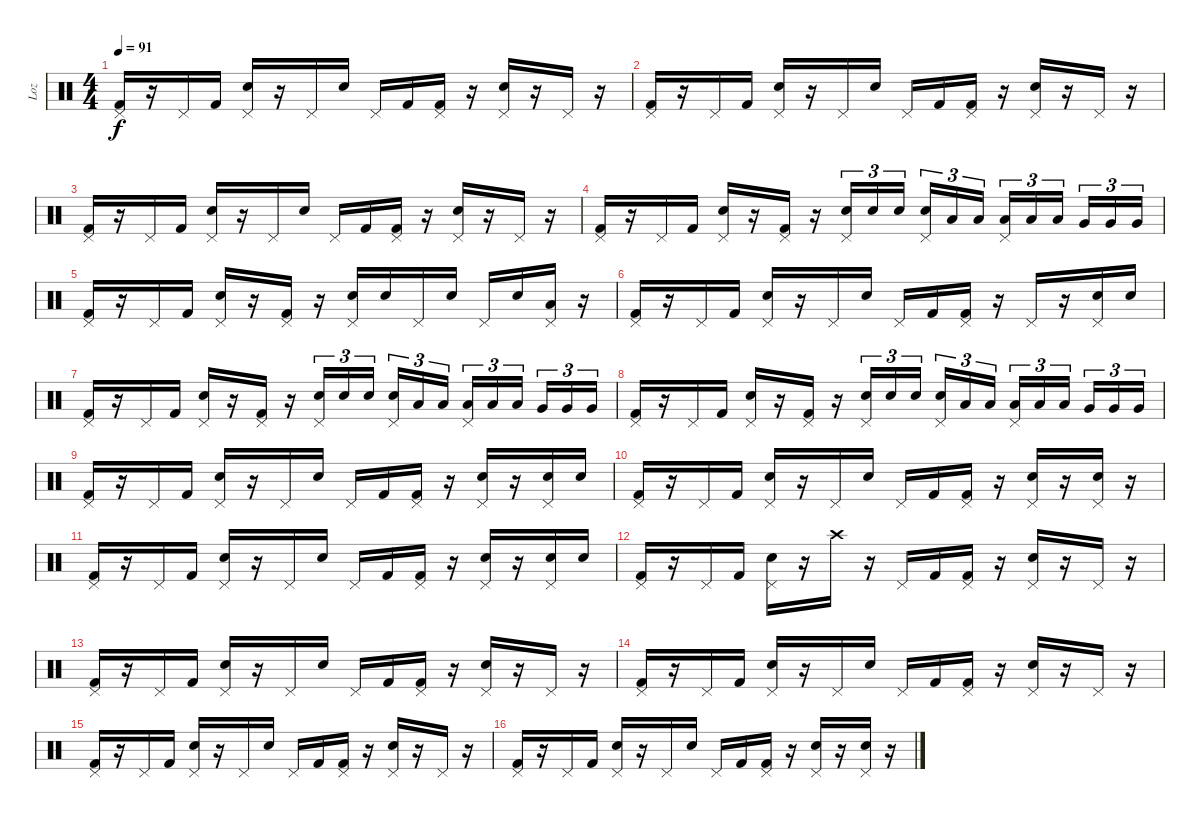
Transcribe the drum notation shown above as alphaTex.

\track ("Loz" "Loz") {instrument percussion}
\staff {score}
\articulation defaults
\ts (4 4)
\tempo 91
\clef neutral
\ks c
("Pedal Hi-Hat (hit)" "Kick (hit) 2").16{dy f} r.16 "Pedal Hi-Hat (hit)".16 "Kick (hit) 2".16 ("Pedal Hi-Hat (hit)" "Electric Snare (hit)").16 r.16 "Pedal Hi-Hat (hit)".16 "Electric Snare (hit)".16 "Pedal Hi-Hat (hit)".16 "Kick (hit) 2".16 ("Pedal Hi-Hat (hit)" "Kick (hit) 2").16 r.16 ("Pedal Hi-Hat (hit)" "Electric Snare (hit)").16 r.16 "Pedal Hi-Hat (hit)".16 r.16 |
("Pedal Hi-Hat (hit)" "Kick (hit) 2").16 r.16 "Pedal Hi-Hat (hit)".16 "Kick (hit) 2".16 ("Pedal Hi-Hat (hit)" "Electric Snare (hit)").16 r.16 "Pedal Hi-Hat (hit)".16 "Electric Snare (hit)".16 "Pedal Hi-Hat (hit)".16 "Kick (hit) 2".16 ("Pedal Hi-Hat (hit)" "Kick (hit) 2").16 r.16 ("Pedal Hi-Hat (hit)" "Electric Snare (hit)").16 r.16 "Pedal Hi-Hat (hit)".16 r.16 |
("Pedal Hi-Hat (hit)" "Kick (hit) 2").16 r.16 "Pedal Hi-Hat (hit)".16 "Kick (hit) 2".16 ("Pedal Hi-Hat (hit)" "Electric Snare (hit)").16 r.16 "Pedal Hi-Hat (hit)".16 "Electric Snare (hit)".16 "Pedal Hi-Hat (hit)".16 "Kick (hit) 2".16 ("Pedal Hi-Hat (hit)" "Kick (hit) 2").16 r.16 ("Pedal Hi-Hat (hit)" "Electric Snare (hit)").16 r.16 "Pedal Hi-Hat (hit)".16 r.16 |
("Pedal Hi-Hat (hit)" "Kick (hit) 2").16 r.16 "Pedal Hi-Hat (hit)".16 "Kick (hit) 2".16 ("Pedal Hi-Hat (hit)" "Electric Snare (hit)").16 r.16 ("Pedal Hi-Hat (hit)" "Kick (hit) 2").16 r.16 ("Pedal Hi-Hat (hit)" "Electric Snare (hit)").16{tu (3 2)} "Electric Snare (hit)".16{tu (3 2)} "Electric Snare (hit)".16{tu (3 2)} ("Pedal Hi-Hat (hit)" "Electric Snare (hit)").16{tu (3 2)} "Low Tom (hit)".16{tu (3 2)} "Low Tom (hit)".16{tu (3 2)} ("Pedal Hi-Hat (hit)" "Low Tom (hit)").16{tu (3 2)} "Low Tom (hit)".16{tu (3 2)} "Low Tom (hit)".16{tu (3 2)} "Very Low Tom (hit)".16{tu (3 2)} "Very Low Tom (hit)".16{tu (3 2)} "Very Low Tom (hit)".16{tu (3 2)} |
("Pedal Hi-Hat (hit)" "Kick (hit) 2").16 r.16 "Pedal Hi-Hat (hit)".16 "Kick (hit) 2".16 ("Pedal Hi-Hat (hit)" "Electric Snare (hit)").16 r.16 ("Pedal Hi-Hat (hit)" "Kick (hit) 2").16 r.16 ("Pedal Hi-Hat (hit)" "Electric Snare (hit)").16 "Electric Snare (hit)".16 "Pedal Hi-Hat (hit)".16 "Electric Snare (hit)".16 "Pedal Hi-Hat (hit)".16 "Electric Snare (hit)".16 ("Pedal Hi-Hat (hit)" "Low Floor Tom (hit)").16 r.16 |
("Pedal Hi-Hat (hit)" "Kick (hit) 2").16 r.16 "Pedal Hi-Hat (hit)".16 "Kick (hit) 2".16 ("Pedal Hi-Hat (hit)" "Electric Snare (hit)").16 r.16 "Pedal Hi-Hat (hit)".16 "Electric Snare (hit)".16 "Pedal Hi-Hat (hit)".16 "Kick (hit) 2".16 ("Pedal Hi-Hat (hit)" "Kick (hit) 2").16 r.16 "Pedal Hi-Hat (hit)".16 r.16 ("Pedal Hi-Hat (hit)" "Electric Snare (hit)").16 "Electric Snare (hit)".16 |
("Pedal Hi-Hat (hit)" "Kick (hit) 2").16 r.16 "Pedal Hi-Hat (hit)".16 "Kick (hit) 2".16 ("Pedal Hi-Hat (hit)" "Electric Snare (hit)").16 r.16 ("Pedal Hi-Hat (hit)" "Kick (hit) 2").16 r.16 ("Pedal Hi-Hat (hit)" "Electric Snare (hit)").16{tu (3 2)} "Electric Snare (hit)".16{tu (3 2)} "Electric Snare (hit)".16{tu (3 2)} ("Pedal Hi-Hat (hit)" "Electric Snare (hit)").16{tu (3 2)} "Low Tom (hit)".16{tu (3 2)} "Low Tom (hit)".16{tu (3 2)} ("Pedal Hi-Hat (hit)" "Low Tom (hit)").16{tu (3 2)} "Low Tom (hit)".16{tu (3 2)} "Low Tom (hit)".16{tu (3 2)} "Very Low Tom (hit)".16{tu (3 2)} "Very Low Tom (hit)".16{tu (3 2)} "Very Low Tom (hit)".16{tu (3 2)} |
("Pedal Hi-Hat (hit)" "Kick (hit) 2").16 r.16 "Pedal Hi-Hat (hit)".16 "Kick (hit) 2".16 ("Pedal Hi-Hat (hit)" "Electric Snare (hit)").16 r.16 ("Pedal Hi-Hat (hit)" "Kick (hit) 2").16 r.16 ("Pedal Hi-Hat (hit)" "Electric Snare (hit)").16{tu (3 2)} "Electric Snare (hit)".16{tu (3 2)} "Electric Snare (hit)".16{tu (3 2)} ("Pedal Hi-Hat (hit)" "Electric Snare (hit)").16{tu (3 2)} "Low Tom (hit)".16{tu (3 2)} "Low Tom (hit)".16{tu (3 2)} ("Pedal Hi-Hat (hit)" "Low Tom (hit)").16{tu (3 2)} "Low Tom (hit)".16{tu (3 2)} "Low Tom (hit)".16{tu (3 2)} "Very Low Tom (hit)".16{tu (3 2)} "Very Low Tom (hit)".16{tu (3 2)} "Very Low Tom (hit)".16{tu (3 2)} |
("Pedal Hi-Hat (hit)" "Kick (hit) 2").16 r.16 "Pedal Hi-Hat (hit)".16 "Kick (hit) 2".16 ("Pedal Hi-Hat (hit)" "Electric Snare (hit)").16 r.16 "Pedal Hi-Hat (hit)".16 "Electric Snare (hit)".16 "Pedal Hi-Hat (hit)".16 "Kick (hit) 2".16 ("Pedal Hi-Hat (hit)" "Kick (hit) 2").16 r.16 ("Pedal Hi-Hat (hit)" "Electric Snare (hit)").16 r.16 ("Pedal Hi-Hat (hit)" "Electric Snare (hit)").16 "Electric Snare (hit)".16 |
("Pedal Hi-Hat (hit)" "Kick (hit) 2").16 r.16 "Pedal Hi-Hat (hit)".16 "Kick (hit) 2".16 ("Pedal Hi-Hat (hit)" "Electric Snare (hit)").16 r.16 "Pedal Hi-Hat (hit)".16 "Electric Snare (hit)".16 "Pedal Hi-Hat (hit)".16 "Kick (hit) 2".16 ("Pedal Hi-Hat (hit)" "Kick (hit) 2").16 r.16 ("Pedal Hi-Hat (hit)" "Electric Snare (hit)").16 r.16 ("Pedal Hi-Hat (hit)" "Electric Snare (hit)").16 r.16 |
("Pedal Hi-Hat (hit)" "Kick (hit) 2").16 r.16 "Pedal Hi-Hat (hit)".16 "Kick (hit) 2".16 ("Pedal Hi-Hat (hit)" "Electric Snare (hit)").16 r.16 "Pedal Hi-Hat (hit)".16 "Electric Snare (hit)".16 "Pedal Hi-Hat (hit)".16 "Kick (hit) 2".16 ("Pedal Hi-Hat (hit)" "Kick (hit) 2").16 r.16 ("Pedal Hi-Hat (hit)" "Electric Snare (hit)").16 r.16 ("Pedal Hi-Hat (hit)" "Electric Snare (hit)").16 "Electric Snare (hit)".16 |
("Pedal Hi-Hat (hit)" "Kick (hit) 2").16 r.16 "Pedal Hi-Hat (hit)".16 "Kick (hit) 2".16 ("Pedal Hi-Hat (hit)" "Electric Snare (hit)").16 r.16 "Crash high (hit)".16 r.16 "Pedal Hi-Hat (hit)".16 "Kick (hit) 2".16 ("Pedal Hi-Hat (hit)" "Kick (hit) 2").16 r.16 ("Pedal Hi-Hat (hit)" "Electric Snare (hit)").16 r.16 "Pedal Hi-Hat (hit)".16 r.16 |
("Pedal Hi-Hat (hit)" "Kick (hit) 2").16 r.16 "Pedal Hi-Hat (hit)".16 "Kick (hit) 2".16 ("Pedal Hi-Hat (hit)" "Electric Snare (hit)").16 r.16 "Pedal Hi-Hat (hit)".16 "Electric Snare (hit)".16 "Pedal Hi-Hat (hit)".16 "Kick (hit) 2".16 ("Pedal Hi-Hat (hit)" "Kick (hit) 2").16 r.16 ("Pedal Hi-Hat (hit)" "Electric Snare (hit)").16 r.16 "Pedal Hi-Hat (hit)".16 r.16 |
("Pedal Hi-Hat (hit)" "Kick (hit) 2").16 r.16 "Pedal Hi-Hat (hit)".16 "Kick (hit) 2".16 ("Pedal Hi-Hat (hit)" "Electric Snare (hit)").16 r.16 "Pedal Hi-Hat (hit)".16 "Electric Snare (hit)".16 "Pedal Hi-Hat (hit)".16 "Kick (hit) 2".16 ("Pedal Hi-Hat (hit)" "Kick (hit) 2").16 r.16 ("Pedal Hi-Hat (hit)" "Electric Snare (hit)").16 r.16 "Pedal Hi-Hat (hit)".16 r.16 |
("Pedal Hi-Hat (hit)" "Kick (hit) 2").16 r.16 "Pedal Hi-Hat (hit)".16 "Kick (hit) 2".16 ("Pedal Hi-Hat (hit)" "Electric Snare (hit)").16 r.16 "Pedal Hi-Hat (hit)".16 "Electric Snare (hit)".16 "Pedal Hi-Hat (hit)".16 "Kick (hit) 2".16 ("Pedal Hi-Hat (hit)" "Kick (hit) 2").16 r.16 ("Pedal Hi-Hat (hit)" "Electric Snare (hit)").16 r.16 "Pedal Hi-Hat (hit)".16 r.16 |
("Pedal Hi-Hat (hit)" "Kick (hit) 2").16 r.16 "Pedal Hi-Hat (hit)".16 "Kick (hit) 2".16 ("Pedal Hi-Hat (hit)" "Electric Snare (hit)").16 r.16 "Pedal Hi-Hat (hit)".16 "Electric Snare (hit)".16 "Pedal Hi-Hat (hit)".16 "Kick (hit) 2".16 ("Pedal Hi-Hat (hit)" "Kick (hit) 2").16 r.16 ("Pedal Hi-Hat (hit)" "Electric Snare (hit)").16 r.16 ("Pedal Hi-Hat (hit)" "Electric Snare (hit)").16 r.16
